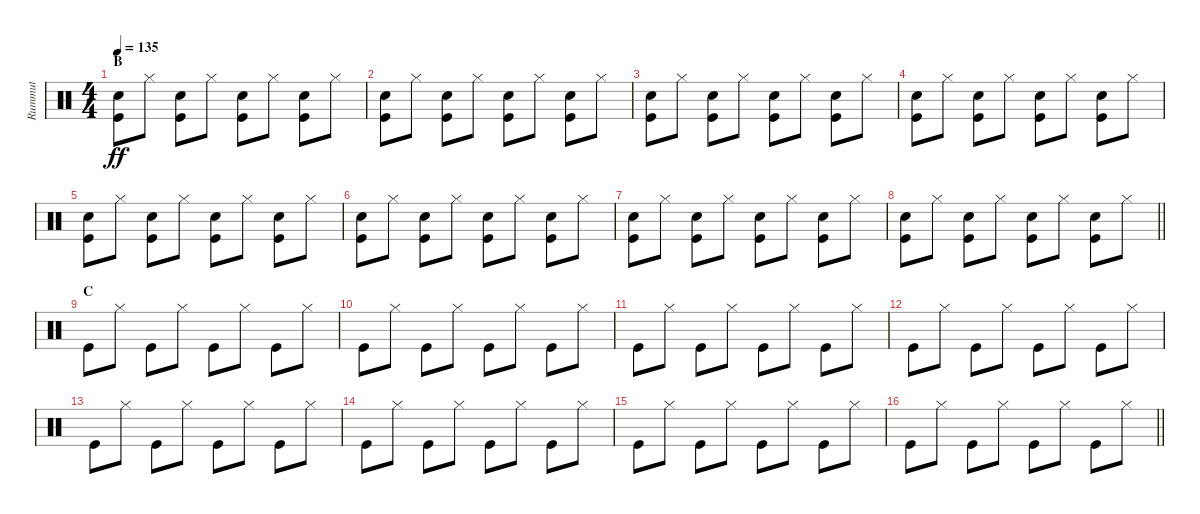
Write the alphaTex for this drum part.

\track ("Rummut" "Rummut") {instrument percussion}
\staff {score}
\articulation defaults
\ts (4 4)
\section ("" "B")
\tempo 135
\clef neutral
\ks c
("Electric Snare (hit)" "Kick (hit)").8{dy ff} "Hi-Hat (closed)".8 ("Electric Snare (hit)" "Kick (hit)").8 "Hi-Hat (closed)".8 ("Electric Snare (hit)" "Kick (hit)").8 "Hi-Hat (closed)".8 ("Electric Snare (hit)" "Kick (hit)").8 "Hi-Hat (closed)".8 |
("Electric Snare (hit)" "Kick (hit)").8 "Hi-Hat (closed)".8 ("Electric Snare (hit)" "Kick (hit)").8 "Hi-Hat (closed)".8 ("Electric Snare (hit)" "Kick (hit)").8 "Hi-Hat (closed)".8 ("Electric Snare (hit)" "Kick (hit)").8 "Hi-Hat (closed)".8 |
("Electric Snare (hit)" "Kick (hit)").8 "Hi-Hat (closed)".8 ("Electric Snare (hit)" "Kick (hit)").8 "Hi-Hat (closed)".8 ("Electric Snare (hit)" "Kick (hit)").8 "Hi-Hat (closed)".8 ("Electric Snare (hit)" "Kick (hit)").8 "Hi-Hat (closed)".8 |
("Electric Snare (hit)" "Kick (hit)").8 "Hi-Hat (closed)".8 ("Electric Snare (hit)" "Kick (hit)").8 "Hi-Hat (closed)".8 ("Electric Snare (hit)" "Kick (hit)").8 "Hi-Hat (closed)".8 ("Electric Snare (hit)" "Kick (hit)").8 "Hi-Hat (closed)".8 |
("Electric Snare (hit)" "Kick (hit)").8 "Hi-Hat (closed)".8 ("Electric Snare (hit)" "Kick (hit)").8 "Hi-Hat (closed)".8 ("Electric Snare (hit)" "Kick (hit)").8 "Hi-Hat (closed)".8 ("Electric Snare (hit)" "Kick (hit)").8 "Hi-Hat (closed)".8 |
("Electric Snare (hit)" "Kick (hit)").8 "Hi-Hat (closed)".8 ("Electric Snare (hit)" "Kick (hit)").8 "Hi-Hat (closed)".8 ("Electric Snare (hit)" "Kick (hit)").8 "Hi-Hat (closed)".8 ("Electric Snare (hit)" "Kick (hit)").8 "Hi-Hat (closed)".8 |
("Electric Snare (hit)" "Kick (hit)").8 "Hi-Hat (closed)".8 ("Electric Snare (hit)" "Kick (hit)").8 "Hi-Hat (closed)".8 ("Electric Snare (hit)" "Kick (hit)").8 "Hi-Hat (closed)".8 ("Electric Snare (hit)" "Kick (hit)").8 "Hi-Hat (closed)".8 |
\barLineRight lightlight
("Electric Snare (hit)" "Kick (hit)").8 "Hi-Hat (closed)".8 ("Electric Snare (hit)" "Kick (hit)").8 "Hi-Hat (closed)".8 ("Electric Snare (hit)" "Kick (hit)").8 "Hi-Hat (closed)".8 ("Electric Snare (hit)" "Kick (hit)").8 "Hi-Hat (closed)".8 |
\section ("" "C")
"Kick (hit)".8 "Hi-Hat (closed)".8 "Kick (hit)".8 "Hi-Hat (closed)".8 "Kick (hit)".8 "Hi-Hat (closed)".8 "Kick (hit)".8 "Hi-Hat (closed)".8 |
"Kick (hit)".8 "Hi-Hat (closed)".8 "Kick (hit)".8 "Hi-Hat (closed)".8 "Kick (hit)".8 "Hi-Hat (closed)".8 "Kick (hit)".8 "Hi-Hat (closed)".8 |
"Kick (hit)".8 "Hi-Hat (closed)".8 "Kick (hit)".8 "Hi-Hat (closed)".8 "Kick (hit)".8 "Hi-Hat (closed)".8 "Kick (hit)".8 "Hi-Hat (closed)".8 |
"Kick (hit)".8 "Hi-Hat (closed)".8 "Kick (hit)".8 "Hi-Hat (closed)".8 "Kick (hit)".8 "Hi-Hat (closed)".8 "Kick (hit)".8 "Hi-Hat (closed)".8 |
"Kick (hit)".8 "Hi-Hat (closed)".8 "Kick (hit)".8 "Hi-Hat (closed)".8 "Kick (hit)".8 "Hi-Hat (closed)".8 "Kick (hit)".8 "Hi-Hat (closed)".8 |
"Kick (hit)".8 "Hi-Hat (closed)".8 "Kick (hit)".8 "Hi-Hat (closed)".8 "Kick (hit)".8 "Hi-Hat (closed)".8 "Kick (hit)".8 "Hi-Hat (closed)".8 |
"Kick (hit)".8 "Hi-Hat (closed)".8 "Kick (hit)".8 "Hi-Hat (closed)".8 "Kick (hit)".8 "Hi-Hat (closed)".8 "Kick (hit)".8 "Hi-Hat (closed)".8 |
\barLineRight lightlight "Kick (hit)".8 "Hi-Hat (closed)".8 "Kick (hit)".8 "Hi-Hat (closed)".8 "Kick (hit)".8 "Hi-Hat (closed)".8 "Kick (hit)".8 "Hi-Hat (closed)".8
